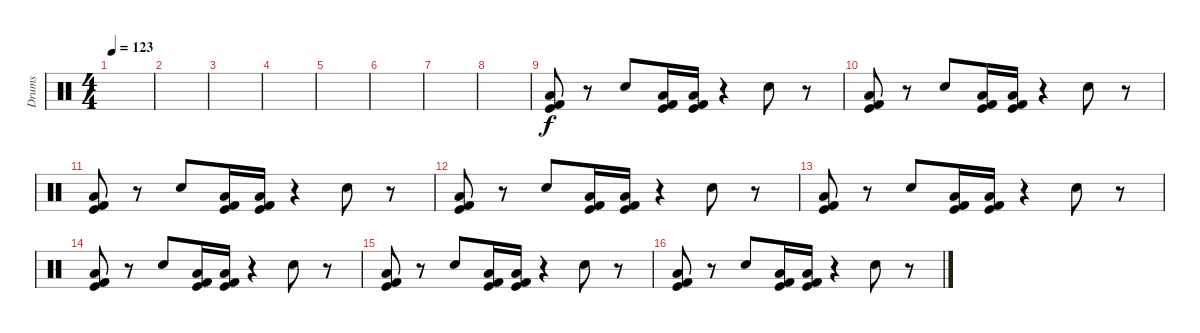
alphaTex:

\track ("Drums" "Drums") {instrument percussion}
\staff {score}
\articulation defaults
\ts (4 4)
\tempo 123
\clef neutral
\ks c
|
|
|
|
|
|
|
|
("Kick (hit) 2" "Kick (hit)" "Low Floor Tom (hit)").8 r.8 "Electric Snare (hit)".8 ("Kick (hit) 2" "Kick (hit)" "Low Floor Tom (hit)").16 ("Kick (hit) 2" "Kick (hit)" "Low Floor Tom (hit)").16 r.4 "Electric Snare (hit)".8 r.8 |
("Kick (hit) 2" "Kick (hit)" "Low Floor Tom (hit)").8 r.8 "Electric Snare (hit)".8 ("Kick (hit) 2" "Kick (hit)" "Low Floor Tom (hit)").16 ("Kick (hit) 2" "Kick (hit)" "Low Floor Tom (hit)").16 r.4 "Electric Snare (hit)".8 r.8 |
("Kick (hit) 2" "Kick (hit)" "Low Floor Tom (hit)").8 r.8 "Electric Snare (hit)".8 ("Kick (hit) 2" "Kick (hit)" "Low Floor Tom (hit)").16 ("Kick (hit) 2" "Kick (hit)" "Low Floor Tom (hit)").16 r.4 "Electric Snare (hit)".8 r.8 |
("Kick (hit) 2" "Kick (hit)" "Low Floor Tom (hit)").8 r.8 "Electric Snare (hit)".8 ("Kick (hit) 2" "Kick (hit)" "Low Floor Tom (hit)").16 ("Kick (hit) 2" "Kick (hit)" "Low Floor Tom (hit)").16 r.4 "Electric Snare (hit)".8 r.8 |
("Kick (hit) 2" "Kick (hit)" "Low Floor Tom (hit)").8 r.8 "Electric Snare (hit)".8 ("Kick (hit) 2" "Kick (hit)" "Low Floor Tom (hit)").16 ("Kick (hit) 2" "Kick (hit)" "Low Floor Tom (hit)").16 r.4 "Electric Snare (hit)".8 r.8 |
("Kick (hit) 2" "Kick (hit)" "Low Floor Tom (hit)").8 r.8 "Electric Snare (hit)".8 ("Kick (hit) 2" "Kick (hit)" "Low Floor Tom (hit)").16 ("Kick (hit) 2" "Kick (hit)" "Low Floor Tom (hit)").16 r.4 "Electric Snare (hit)".8 r.8 |
("Kick (hit) 2" "Kick (hit)" "Low Floor Tom (hit)").8 r.8 "Electric Snare (hit)".8 ("Kick (hit) 2" "Kick (hit)" "Low Floor Tom (hit)").16 ("Kick (hit) 2" "Kick (hit)" "Low Floor Tom (hit)").16 r.4 "Electric Snare (hit)".8 r.8 |
("Kick (hit) 2" "Kick (hit)" "Low Floor Tom (hit)").8 r.8 "Electric Snare (hit)".8 ("Kick (hit) 2" "Kick (hit)" "Low Floor Tom (hit)").16 ("Kick (hit) 2" "Kick (hit)" "Low Floor Tom (hit)").16 r.4 "Electric Snare (hit)".8 r.8
